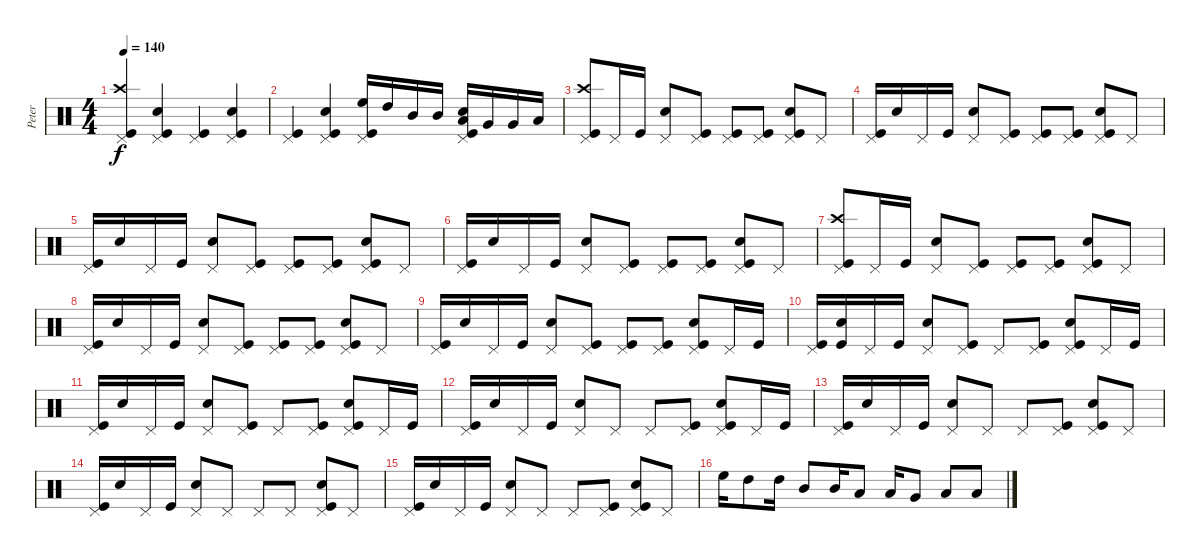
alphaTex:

\track ("Peter" "Peter") {instrument percussion}
\staff {score}
\articulation defaults
\ts (4 4)
\tempo 140
\clef neutral
\ks c
("Kick (hit)" "Crash high (hit)" "Pedal Hi-Hat (hit)").4{dy f} ("Kick (hit)" "Snare (hit) 2" "Pedal Hi-Hat (hit)").4 ("Pedal Hi-Hat (hit)" "Kick (hit)").4 ("Kick (hit)" "Pedal Hi-Hat (hit)" "Snare (hit) 2").4 |
("Kick (hit)" "Pedal Hi-Hat (hit)").4 ("Snare (hit) 2" "Kick (hit)" "Pedal Hi-Hat (hit)").4 ("High Floor Tom (hit)" "Kick (hit)" "Pedal Hi-Hat (hit)").16 "High Tom (hit)".16 "Mid Tom (hit)".16 "Mid Tom (hit)".16 ("Pedal Hi-Hat (hit)" "Snare (hit) 2" "Kick (hit)" "Low Tom (hit)").16 "Very Low Tom (hit)".16 "Very Low Tom (hit)".16 "Low Floor Tom (hit)".16 |
("Crash high (hit)" "Kick (hit)" "Pedal Hi-Hat (hit)").8 "Pedal Hi-Hat (hit)".16 "Kick (hit)".16 ("Pedal Hi-Hat (hit)" "Electric Snare (hit)").8 ("Pedal Hi-Hat (hit)" "Kick (hit)").8 ("Kick (hit)" "Pedal Hi-Hat (hit)").8 ("Pedal Hi-Hat (hit)" "Kick (hit)").8 ("Kick (hit)" "Pedal Hi-Hat (hit)" "Electric Snare (hit)").8 "Pedal Hi-Hat (hit)".8 |
("Kick (hit)" "Pedal Hi-Hat (hit)").16 "Electric Snare (hit)".16 "Pedal Hi-Hat (hit)".16 "Kick (hit)".16 ("Pedal Hi-Hat (hit)" "Electric Snare (hit)").8 ("Pedal Hi-Hat (hit)" "Kick (hit)").8 ("Pedal Hi-Hat (hit)" "Kick (hit)").8 ("Kick (hit)" "Pedal Hi-Hat (hit)").8 ("Pedal Hi-Hat (hit)" "Kick (hit)" "Electric Snare (hit)").8 "Pedal Hi-Hat (hit)".8 |
("Kick (hit)" "Pedal Hi-Hat (hit)").16 "Electric Snare (hit)".16 "Pedal Hi-Hat (hit)".16 "Kick (hit)".16 ("Pedal Hi-Hat (hit)" "Electric Snare (hit)").8 ("Kick (hit)" "Pedal Hi-Hat (hit)").8 ("Pedal Hi-Hat (hit)" "Kick (hit)").8 ("Pedal Hi-Hat (hit)" "Kick (hit)").8 ("Pedal Hi-Hat (hit)" "Electric Snare (hit)" "Kick (hit)").8 "Pedal Hi-Hat (hit)".8 |
("Kick (hit)" "Pedal Hi-Hat (hit)").16 "Electric Snare (hit)".16 "Pedal Hi-Hat (hit)".16 "Kick (hit)".16 ("Pedal Hi-Hat (hit)" "Electric Snare (hit)").8 ("Pedal Hi-Hat (hit)" "Kick (hit)").8 ("Kick (hit)" "Pedal Hi-Hat (hit)").8 ("Kick (hit)" "Pedal Hi-Hat (hit)").8 ("Electric Snare (hit)" "Kick (hit)" "Pedal Hi-Hat (hit)").8 "Pedal Hi-Hat (hit)".8 |
("Kick (hit)" "Pedal Hi-Hat (hit)" "Crash high (hit)").8 "Pedal Hi-Hat (hit)".16 "Kick (hit)".16 ("Electric Snare (hit)" "Pedal Hi-Hat (hit)").8 ("Pedal Hi-Hat (hit)" "Kick (hit)").8 ("Pedal Hi-Hat (hit)" "Kick (hit)").8 ("Pedal Hi-Hat (hit)" "Kick (hit)").8 ("Pedal Hi-Hat (hit)" "Kick (hit)" "Electric Snare (hit)").8 "Pedal Hi-Hat (hit)".8 |
("Kick (hit)" "Pedal Hi-Hat (hit)").16 "Electric Snare (hit)".16 "Pedal Hi-Hat (hit)".16 "Kick (hit)".16 ("Electric Snare (hit)" "Pedal Hi-Hat (hit)").8 ("Pedal Hi-Hat (hit)" "Kick (hit)").8 ("Pedal Hi-Hat (hit)" "Kick (hit)").8 ("Kick (hit)" "Pedal Hi-Hat (hit)").8 ("Pedal Hi-Hat (hit)" "Kick (hit)" "Electric Snare (hit)").8 "Pedal Hi-Hat (hit)".8 |
("Pedal Hi-Hat (hit)" "Kick (hit)").16 "Electric Snare (hit)".16 "Pedal Hi-Hat (hit)".16 "Kick (hit)".16 ("Electric Snare (hit)" "Pedal Hi-Hat (hit)").8 ("Kick (hit)" "Pedal Hi-Hat (hit)").8 ("Pedal Hi-Hat (hit)" "Kick (hit)").8 ("Pedal Hi-Hat (hit)" "Kick (hit)").8 ("Kick (hit)" "Pedal Hi-Hat (hit)" "Electric Snare (hit)").8 "Pedal Hi-Hat (hit)".16 "Kick (hit)".16 |
("Kick (hit)" "Pedal Hi-Hat (hit)").16 ("Kick (hit)" "Electric Snare (hit)").16 "Pedal Hi-Hat (hit)".16 "Kick (hit)".16 ("Pedal Hi-Hat (hit)" "Electric Snare (hit)").8 ("Pedal Hi-Hat (hit)" "Kick (hit)").8 "Pedal Hi-Hat (hit)".8 ("Pedal Hi-Hat (hit)" "Kick (hit)").8 ("Pedal Hi-Hat (hit)" "Electric Snare (hit)" "Kick (hit)").8 "Pedal Hi-Hat (hit)".16 "Kick (hit)".16 |
("Kick (hit)" "Pedal Hi-Hat (hit)").16 "Electric Snare (hit)".16 "Pedal Hi-Hat (hit)".16 "Kick (hit)".16 ("Pedal Hi-Hat (hit)" "Electric Snare (hit)").8 ("Pedal Hi-Hat (hit)" "Kick (hit)").8 "Pedal Hi-Hat (hit)".8 ("Kick (hit)" "Pedal Hi-Hat (hit)").8 ("Electric Snare (hit)" "Kick (hit)" "Pedal Hi-Hat (hit)").8 "Pedal Hi-Hat (hit)".16 "Kick (hit)".16 |
("Kick (hit)" "Pedal Hi-Hat (hit)").16 "Electric Snare (hit)".16 "Pedal Hi-Hat (hit)".16 "Kick (hit)".16 ("Pedal Hi-Hat (hit)" "Electric Snare (hit)").8 "Pedal Hi-Hat (hit)".8 "Pedal Hi-Hat (hit)".8 ("Kick (hit)" "Pedal Hi-Hat (hit)").8 ("Electric Snare (hit)" "Kick (hit)" "Pedal Hi-Hat (hit)").8 "Pedal Hi-Hat (hit)".16 "Kick (hit)".16 |
("Pedal Hi-Hat (hit)" "Kick (hit)").16 "Electric Snare (hit)".16 "Pedal Hi-Hat (hit)".16 "Kick (hit)".16 ("Electric Snare (hit)" "Pedal Hi-Hat (hit)").8 "Pedal Hi-Hat (hit)".8 "Pedal Hi-Hat (hit)".8 ("Pedal Hi-Hat (hit)" "Kick (hit)").8 ("Pedal Hi-Hat (hit)" "Electric Snare (hit)" "Kick (hit)").8 "Pedal Hi-Hat (hit)".8 |
("Pedal Hi-Hat (hit)" "Kick (hit)").16 "Electric Snare (hit)".16 "Pedal Hi-Hat (hit)".16 "Kick (hit)".16 ("Pedal Hi-Hat (hit)" "Electric Snare (hit)").8 "Pedal Hi-Hat (hit)".8 "Pedal Hi-Hat (hit)".8 "Pedal Hi-Hat (hit)".8 ("Electric Snare (hit)" "Pedal Hi-Hat (hit)" "Kick (hit)").8 "Pedal Hi-Hat (hit)".8 |
("Kick (hit)" "Pedal Hi-Hat (hit)").16 "Electric Snare (hit)".16 "Pedal Hi-Hat (hit)".16 "Kick (hit)".16 ("Electric Snare (hit)" "Pedal Hi-Hat (hit)").8 "Pedal Hi-Hat (hit)".8 "Pedal Hi-Hat (hit)".8 ("Kick (hit)" "Pedal Hi-Hat (hit)").8 ("Kick (hit)" "Electric Snare (hit)" "Pedal Hi-Hat (hit)").8 "Pedal Hi-Hat (hit)".8 |
"High Floor Tom (hit)".16 "High Tom (hit)".8 "High Tom (hit)".16 "Mid Tom (hit)".8 "Mid Tom (hit)".16 "Low Tom (hit)".8 "Low Tom (hit)".16 "Very Low Tom (hit)".8 "Low Floor Tom (hit)".8 "Low Floor Tom (hit)".8
